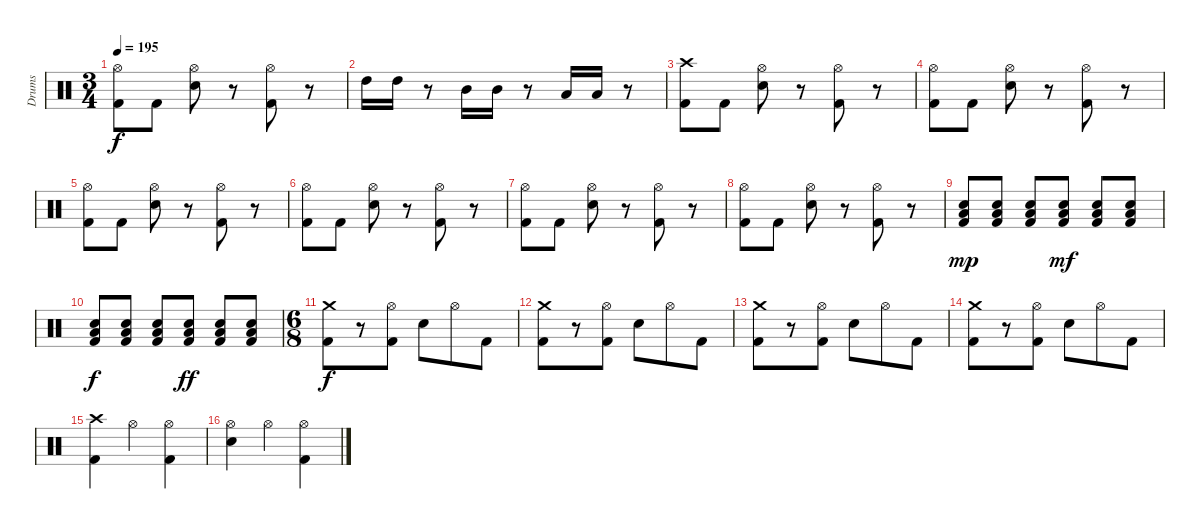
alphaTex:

\track ("Drums" "Drums") {instrument percussion}
\staff {score}
\articulation defaults
\ts (3 4)
\tempo 195
\clef neutral
\ks c
("Hi-Hat (open)" "Kick (hit) 2").8{dy f} "Kick (hit) 2".8 ("Hi-Hat (open)" "Electric Snare (hit)").8 r.8 ("Hi-Hat (open)" "Kick (hit) 2").8 r.8 |
"High Tom (hit)".16 "High Tom (hit)".16 r.8 "Mid Tom (hit)".16 "Mid Tom (hit)".16 r.8 "Low Tom (hit)".16 "Low Tom (hit)".16 r.8 |
("Crash high (hit)" "Kick (hit) 2").8 "Kick (hit) 2".8 ("Hi-Hat (open)" "Electric Snare (hit)").8 r.8 ("Hi-Hat (open)" "Kick (hit) 2").8 r.8 |
("Hi-Hat (open)" "Kick (hit) 2").8 "Kick (hit) 2".8 ("Hi-Hat (open)" "Electric Snare (hit)").8 r.8 ("Hi-Hat (open)" "Kick (hit) 2").8 r.8 |
("Hi-Hat (open)" "Kick (hit) 2").8 "Kick (hit) 2".8 ("Hi-Hat (open)" "Electric Snare (hit)").8 r.8 ("Hi-Hat (open)" "Kick (hit) 2").8 r.8 |
("Hi-Hat (open)" "Kick (hit) 2").8 "Kick (hit) 2".8 ("Hi-Hat (open)" "Electric Snare (hit)").8 r.8 ("Hi-Hat (open)" "Kick (hit) 2").8 r.8 |
("Hi-Hat (open)" "Kick (hit) 2").8 "Kick (hit) 2".8 ("Hi-Hat (open)" "Electric Snare (hit)").8 r.8 ("Hi-Hat (open)" "Kick (hit) 2").8 r.8 |
("Hi-Hat (open)" "Kick (hit) 2").8 "Kick (hit) 2".8 ("Hi-Hat (open)" "Electric Snare (hit)").8 r.8 ("Hi-Hat (open)" "Kick (hit) 2").8 r.8 |
("Low Tom (hit)" "Electric Snare (hit)" "Kick (hit) 2").8{dy mp} ("Low Tom (hit)" "Electric Snare (hit)" "Kick (hit) 2").8 ("Low Tom (hit)" "Electric Snare (hit)" "Kick (hit) 2").8 ("Low Tom (hit)" "Electric Snare (hit)" "Kick (hit) 2").8{dy mf} ("Low Tom (hit)" "Electric Snare (hit)" "Kick (hit) 2").8 ("Low Tom (hit)" "Electric Snare (hit)" "Kick (hit) 2").8 |
("Low Tom (hit)" "Electric Snare (hit)" "Kick (hit) 2").8{dy f} ("Low Tom (hit)" "Electric Snare (hit)" "Kick (hit) 2").8 ("Low Tom (hit)" "Electric Snare (hit)" "Kick (hit) 2").8 ("Low Tom (hit)" "Electric Snare (hit)" "Kick (hit) 2").8{dy ff} ("Low Tom (hit)" "Electric Snare (hit)" "Kick (hit) 2").8 ("Low Tom (hit)" "Electric Snare (hit)" "Kick (hit) 2").8 |
\ts (6 8)
("Crash medium (hit)" "Kick (hit) 2").8{dy f} r.8 ("Hi-Hat (open)" "Kick (hit) 2").8 "Electric Snare (hit)".8 "Hi-Hat (open)".8 "Kick (hit) 2".8 |
("Crash medium (hit)" "Kick (hit) 2").8 r.8 ("Hi-Hat (open)" "Kick (hit) 2").8 "Electric Snare (hit)".8 "Hi-Hat (open)".8 "Kick (hit) 2".8 |
("Crash medium (hit)" "Kick (hit) 2").8 r.8 ("Hi-Hat (open)" "Kick (hit) 2").8 "Electric Snare (hit)".8 "Hi-Hat (open)".8 "Kick (hit) 2".8 |
("Crash medium (hit)" "Kick (hit) 2").8 r.8 ("Hi-Hat (open)" "Kick (hit) 2").8 "Electric Snare (hit)".8 "Hi-Hat (open)".8 "Kick (hit) 2".8 |
("Crash high (hit)" "Kick (hit) 2").4 "Hi-Hat (open)".4 ("Hi-Hat (open)" "Kick (hit) 2").4 |
("Hi-Hat (open)" "Electric Snare (hit)").4 "Hi-Hat (open)".4 ("Hi-Hat (open)" "Kick (hit) 2").4
